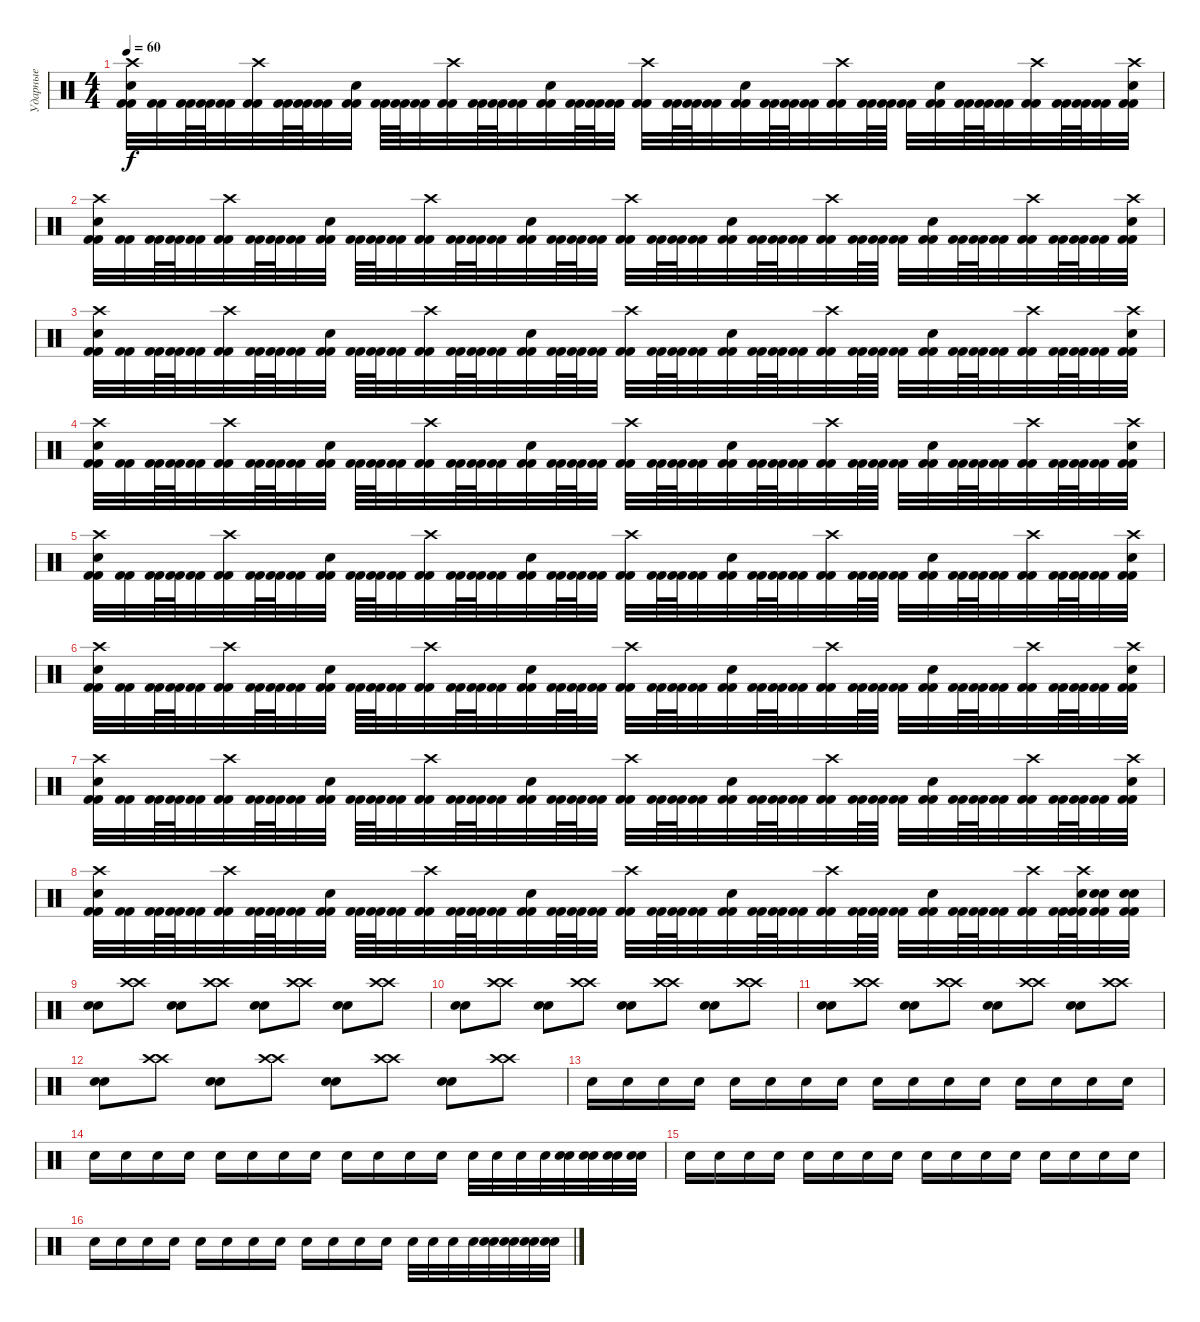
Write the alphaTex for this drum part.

\track ("Ударные" "Ударные") {instrument percussion}
\staff {score}
\articulation defaults
\ts (4 4)
\tempo 60
\clef neutral
\ks c
("Kick (hit) 2" "Kick (hit) 2" "Electric Snare (hit)" "Crash high (hit)").32{dy f} ("Kick (hit) 2" "Kick (hit) 2").32 ("Kick (hit) 2" "Kick (hit) 2").64 ("Kick (hit) 2" "Kick (hit) 2").64 ("Kick (hit) 2" "Kick (hit) 2").32 ("Kick (hit) 2" "Kick (hit) 2" "Crash high (hit)").32 ("Kick (hit) 2" "Kick (hit) 2").64 ("Kick (hit) 2" "Kick (hit) 2").64 ("Kick (hit) 2" "Kick (hit) 2").32 ("Kick (hit) 2" "Kick (hit) 2" "Electric Snare (hit)").32 ("Kick (hit) 2" "Kick (hit) 2").64 ("Kick (hit) 2" "Kick (hit) 2").64 ("Kick (hit) 2" "Kick (hit) 2").32 ("Kick (hit) 2" "Kick (hit) 2" "Crash high (hit)").32 ("Kick (hit) 2" "Kick (hit) 2").64 ("Kick (hit) 2" "Kick (hit) 2").64 ("Kick (hit) 2" "Kick (hit) 2").32 ("Kick (hit) 2" "Kick (hit) 2" "Electric Snare (hit)").32 ("Kick (hit) 2" "Kick (hit) 2").64 ("Kick (hit) 2" "Kick (hit) 2").64 ("Kick (hit) 2" "Kick (hit) 2").32 ("Kick (hit) 2" "Kick (hit) 2" "Crash high (hit)").32 ("Kick (hit) 2" "Kick (hit) 2").64 ("Kick (hit) 2" "Kick (hit) 2").64 ("Kick (hit) 2" "Kick (hit) 2").32 ("Kick (hit) 2" "Kick (hit) 2" "Electric Snare (hit)").32 ("Kick (hit) 2" "Kick (hit) 2").64 ("Kick (hit) 2" "Kick (hit) 2").64 ("Kick (hit) 2" "Kick (hit) 2").32 ("Kick (hit) 2" "Kick (hit) 2" "Crash high (hit)").32 ("Kick (hit) 2" "Kick (hit) 2").64 ("Kick (hit) 2" "Kick (hit) 2").64 ("Kick (hit) 2" "Kick (hit) 2").32 ("Kick (hit) 2" "Kick (hit) 2" "Electric Snare (hit)").32 ("Kick (hit) 2" "Kick (hit) 2").64 ("Kick (hit) 2" "Kick (hit) 2").64 ("Kick (hit) 2" "Kick (hit) 2").32 ("Kick (hit) 2" "Kick (hit) 2" "Crash high (hit)").32 ("Kick (hit) 2" "Kick (hit) 2").64 ("Kick (hit) 2" "Kick (hit) 2").64 ("Kick (hit) 2" "Kick (hit) 2").32 ("Kick (hit) 2" "Kick (hit) 2" "Electric Snare (hit)" "Crash high (hit)").32 |
("Kick (hit) 2" "Kick (hit) 2" "Electric Snare (hit)" "Crash high (hit)").32 ("Kick (hit) 2" "Kick (hit) 2").32 ("Kick (hit) 2" "Kick (hit) 2").64 ("Kick (hit) 2" "Kick (hit) 2").64 ("Kick (hit) 2" "Kick (hit) 2").32 ("Kick (hit) 2" "Kick (hit) 2" "Crash high (hit)").32 ("Kick (hit) 2" "Kick (hit) 2").64 ("Kick (hit) 2" "Kick (hit) 2").64 ("Kick (hit) 2" "Kick (hit) 2").32 ("Kick (hit) 2" "Kick (hit) 2" "Electric Snare (hit)").32 ("Kick (hit) 2" "Kick (hit) 2").64 ("Kick (hit) 2" "Kick (hit) 2").64 ("Kick (hit) 2" "Kick (hit) 2").32 ("Kick (hit) 2" "Kick (hit) 2" "Crash high (hit)").32 ("Kick (hit) 2" "Kick (hit) 2").64 ("Kick (hit) 2" "Kick (hit) 2").64 ("Kick (hit) 2" "Kick (hit) 2").32 ("Kick (hit) 2" "Kick (hit) 2" "Electric Snare (hit)").32 ("Kick (hit) 2" "Kick (hit) 2").64 ("Kick (hit) 2" "Kick (hit) 2").64 ("Kick (hit) 2" "Kick (hit) 2").32 ("Kick (hit) 2" "Kick (hit) 2" "Crash high (hit)").32 ("Kick (hit) 2" "Kick (hit) 2").64 ("Kick (hit) 2" "Kick (hit) 2").64 ("Kick (hit) 2" "Kick (hit) 2").32 ("Kick (hit) 2" "Kick (hit) 2" "Electric Snare (hit)").32 ("Kick (hit) 2" "Kick (hit) 2").64 ("Kick (hit) 2" "Kick (hit) 2").64 ("Kick (hit) 2" "Kick (hit) 2").32 ("Kick (hit) 2" "Kick (hit) 2" "Crash high (hit)").32 ("Kick (hit) 2" "Kick (hit) 2").64 ("Kick (hit) 2" "Kick (hit) 2").64 ("Kick (hit) 2" "Kick (hit) 2").32 ("Kick (hit) 2" "Kick (hit) 2" "Electric Snare (hit)").32 ("Kick (hit) 2" "Kick (hit) 2").64 ("Kick (hit) 2" "Kick (hit) 2").64 ("Kick (hit) 2" "Kick (hit) 2").32 ("Kick (hit) 2" "Kick (hit) 2" "Crash high (hit)").32 ("Kick (hit) 2" "Kick (hit) 2").64 ("Kick (hit) 2" "Kick (hit) 2").64 ("Kick (hit) 2" "Kick (hit) 2").32 ("Kick (hit) 2" "Kick (hit) 2" "Electric Snare (hit)" "Crash high (hit)").32 |
("Kick (hit) 2" "Kick (hit) 2" "Electric Snare (hit)" "Crash high (hit)").32 ("Kick (hit) 2" "Kick (hit) 2").32 ("Kick (hit) 2" "Kick (hit) 2").64 ("Kick (hit) 2" "Kick (hit) 2").64 ("Kick (hit) 2" "Kick (hit) 2").32 ("Kick (hit) 2" "Kick (hit) 2" "Crash high (hit)").32 ("Kick (hit) 2" "Kick (hit) 2").64 ("Kick (hit) 2" "Kick (hit) 2").64 ("Kick (hit) 2" "Kick (hit) 2").32 ("Kick (hit) 2" "Kick (hit) 2" "Electric Snare (hit)").32 ("Kick (hit) 2" "Kick (hit) 2").64 ("Kick (hit) 2" "Kick (hit) 2").64 ("Kick (hit) 2" "Kick (hit) 2").32 ("Kick (hit) 2" "Kick (hit) 2" "Crash high (hit)").32 ("Kick (hit) 2" "Kick (hit) 2").64 ("Kick (hit) 2" "Kick (hit) 2").64 ("Kick (hit) 2" "Kick (hit) 2").32 ("Kick (hit) 2" "Kick (hit) 2" "Electric Snare (hit)").32 ("Kick (hit) 2" "Kick (hit) 2").64 ("Kick (hit) 2" "Kick (hit) 2").64 ("Kick (hit) 2" "Kick (hit) 2").32 ("Kick (hit) 2" "Kick (hit) 2" "Crash high (hit)").32 ("Kick (hit) 2" "Kick (hit) 2").64 ("Kick (hit) 2" "Kick (hit) 2").64 ("Kick (hit) 2" "Kick (hit) 2").32 ("Kick (hit) 2" "Kick (hit) 2" "Electric Snare (hit)").32 ("Kick (hit) 2" "Kick (hit) 2").64 ("Kick (hit) 2" "Kick (hit) 2").64 ("Kick (hit) 2" "Kick (hit) 2").32 ("Kick (hit) 2" "Kick (hit) 2" "Crash high (hit)").32 ("Kick (hit) 2" "Kick (hit) 2").64 ("Kick (hit) 2" "Kick (hit) 2").64 ("Kick (hit) 2" "Kick (hit) 2").32 ("Kick (hit) 2" "Kick (hit) 2" "Electric Snare (hit)").32 ("Kick (hit) 2" "Kick (hit) 2").64 ("Kick (hit) 2" "Kick (hit) 2").64 ("Kick (hit) 2" "Kick (hit) 2").32 ("Kick (hit) 2" "Kick (hit) 2" "Crash high (hit)").32 ("Kick (hit) 2" "Kick (hit) 2").64 ("Kick (hit) 2" "Kick (hit) 2").64 ("Kick (hit) 2" "Kick (hit) 2").32 ("Kick (hit) 2" "Kick (hit) 2" "Electric Snare (hit)" "Crash high (hit)").32 |
("Kick (hit) 2" "Kick (hit) 2" "Electric Snare (hit)" "Crash high (hit)").32 ("Kick (hit) 2" "Kick (hit) 2").32 ("Kick (hit) 2" "Kick (hit) 2").64 ("Kick (hit) 2" "Kick (hit) 2").64 ("Kick (hit) 2" "Kick (hit) 2").32 ("Kick (hit) 2" "Kick (hit) 2" "Crash high (hit)").32 ("Kick (hit) 2" "Kick (hit) 2").64 ("Kick (hit) 2" "Kick (hit) 2").64 ("Kick (hit) 2" "Kick (hit) 2").32 ("Kick (hit) 2" "Kick (hit) 2" "Electric Snare (hit)").32 ("Kick (hit) 2" "Kick (hit) 2").64 ("Kick (hit) 2" "Kick (hit) 2").64 ("Kick (hit) 2" "Kick (hit) 2").32 ("Kick (hit) 2" "Kick (hit) 2" "Crash high (hit)").32 ("Kick (hit) 2" "Kick (hit) 2").64 ("Kick (hit) 2" "Kick (hit) 2").64 ("Kick (hit) 2" "Kick (hit) 2").32 ("Kick (hit) 2" "Kick (hit) 2" "Electric Snare (hit)").32 ("Kick (hit) 2" "Kick (hit) 2").64 ("Kick (hit) 2" "Kick (hit) 2").64 ("Kick (hit) 2" "Kick (hit) 2").32 ("Kick (hit) 2" "Kick (hit) 2" "Crash high (hit)").32 ("Kick (hit) 2" "Kick (hit) 2").64 ("Kick (hit) 2" "Kick (hit) 2").64 ("Kick (hit) 2" "Kick (hit) 2").32 ("Kick (hit) 2" "Kick (hit) 2" "Electric Snare (hit)").32 ("Kick (hit) 2" "Kick (hit) 2").64 ("Kick (hit) 2" "Kick (hit) 2").64 ("Kick (hit) 2" "Kick (hit) 2").32 ("Kick (hit) 2" "Kick (hit) 2" "Crash high (hit)").32 ("Kick (hit) 2" "Kick (hit) 2").64 ("Kick (hit) 2" "Kick (hit) 2").64 ("Kick (hit) 2" "Kick (hit) 2").32 ("Kick (hit) 2" "Kick (hit) 2" "Electric Snare (hit)").32 ("Kick (hit) 2" "Kick (hit) 2").64 ("Kick (hit) 2" "Kick (hit) 2").64 ("Kick (hit) 2" "Kick (hit) 2").32 ("Kick (hit) 2" "Kick (hit) 2" "Crash high (hit)").32 ("Kick (hit) 2" "Kick (hit) 2").64 ("Kick (hit) 2" "Kick (hit) 2").64 ("Kick (hit) 2" "Kick (hit) 2").32 ("Kick (hit) 2" "Kick (hit) 2" "Electric Snare (hit)" "Crash high (hit)").32 |
("Kick (hit) 2" "Kick (hit) 2" "Electric Snare (hit)" "Crash high (hit)").32 ("Kick (hit) 2" "Kick (hit) 2").32 ("Kick (hit) 2" "Kick (hit) 2").64 ("Kick (hit) 2" "Kick (hit) 2").64 ("Kick (hit) 2" "Kick (hit) 2").32 ("Kick (hit) 2" "Kick (hit) 2" "Crash high (hit)").32 ("Kick (hit) 2" "Kick (hit) 2").64 ("Kick (hit) 2" "Kick (hit) 2").64 ("Kick (hit) 2" "Kick (hit) 2").32 ("Kick (hit) 2" "Kick (hit) 2" "Electric Snare (hit)").32 ("Kick (hit) 2" "Kick (hit) 2").64 ("Kick (hit) 2" "Kick (hit) 2").64 ("Kick (hit) 2" "Kick (hit) 2").32 ("Kick (hit) 2" "Kick (hit) 2" "Crash high (hit)").32 ("Kick (hit) 2" "Kick (hit) 2").64 ("Kick (hit) 2" "Kick (hit) 2").64 ("Kick (hit) 2" "Kick (hit) 2").32 ("Kick (hit) 2" "Kick (hit) 2" "Electric Snare (hit)").32 ("Kick (hit) 2" "Kick (hit) 2").64 ("Kick (hit) 2" "Kick (hit) 2").64 ("Kick (hit) 2" "Kick (hit) 2").32 ("Kick (hit) 2" "Kick (hit) 2" "Crash high (hit)").32 ("Kick (hit) 2" "Kick (hit) 2").64 ("Kick (hit) 2" "Kick (hit) 2").64 ("Kick (hit) 2" "Kick (hit) 2").32 ("Kick (hit) 2" "Kick (hit) 2" "Electric Snare (hit)").32 ("Kick (hit) 2" "Kick (hit) 2").64 ("Kick (hit) 2" "Kick (hit) 2").64 ("Kick (hit) 2" "Kick (hit) 2").32 ("Kick (hit) 2" "Kick (hit) 2" "Crash high (hit)").32 ("Kick (hit) 2" "Kick (hit) 2").64 ("Kick (hit) 2" "Kick (hit) 2").64 ("Kick (hit) 2" "Kick (hit) 2").32 ("Kick (hit) 2" "Kick (hit) 2" "Electric Snare (hit)").32 ("Kick (hit) 2" "Kick (hit) 2").64 ("Kick (hit) 2" "Kick (hit) 2").64 ("Kick (hit) 2" "Kick (hit) 2").32 ("Kick (hit) 2" "Kick (hit) 2" "Crash high (hit)").32 ("Kick (hit) 2" "Kick (hit) 2").64 ("Kick (hit) 2" "Kick (hit) 2").64 ("Kick (hit) 2" "Kick (hit) 2").32 ("Kick (hit) 2" "Kick (hit) 2" "Electric Snare (hit)" "Crash high (hit)").32 |
("Kick (hit) 2" "Kick (hit) 2" "Electric Snare (hit)" "Crash high (hit)").32 ("Kick (hit) 2" "Kick (hit) 2").32 ("Kick (hit) 2" "Kick (hit) 2").64 ("Kick (hit) 2" "Kick (hit) 2").64 ("Kick (hit) 2" "Kick (hit) 2").32 ("Kick (hit) 2" "Kick (hit) 2" "Crash high (hit)").32 ("Kick (hit) 2" "Kick (hit) 2").64 ("Kick (hit) 2" "Kick (hit) 2").64 ("Kick (hit) 2" "Kick (hit) 2").32 ("Kick (hit) 2" "Kick (hit) 2" "Electric Snare (hit)").32 ("Kick (hit) 2" "Kick (hit) 2").64 ("Kick (hit) 2" "Kick (hit) 2").64 ("Kick (hit) 2" "Kick (hit) 2").32 ("Kick (hit) 2" "Kick (hit) 2" "Crash high (hit)").32 ("Kick (hit) 2" "Kick (hit) 2").64 ("Kick (hit) 2" "Kick (hit) 2").64 ("Kick (hit) 2" "Kick (hit) 2").32 ("Kick (hit) 2" "Kick (hit) 2" "Electric Snare (hit)").32 ("Kick (hit) 2" "Kick (hit) 2").64 ("Kick (hit) 2" "Kick (hit) 2").64 ("Kick (hit) 2" "Kick (hit) 2").32 ("Kick (hit) 2" "Kick (hit) 2" "Crash high (hit)").32 ("Kick (hit) 2" "Kick (hit) 2").64 ("Kick (hit) 2" "Kick (hit) 2").64 ("Kick (hit) 2" "Kick (hit) 2").32 ("Kick (hit) 2" "Kick (hit) 2" "Electric Snare (hit)").32 ("Kick (hit) 2" "Kick (hit) 2").64 ("Kick (hit) 2" "Kick (hit) 2").64 ("Kick (hit) 2" "Kick (hit) 2").32 ("Kick (hit) 2" "Kick (hit) 2" "Crash high (hit)").32 ("Kick (hit) 2" "Kick (hit) 2").64 ("Kick (hit) 2" "Kick (hit) 2").64 ("Kick (hit) 2" "Kick (hit) 2").32 ("Kick (hit) 2" "Kick (hit) 2" "Electric Snare (hit)").32 ("Kick (hit) 2" "Kick (hit) 2").64 ("Kick (hit) 2" "Kick (hit) 2").64 ("Kick (hit) 2" "Kick (hit) 2").32 ("Kick (hit) 2" "Kick (hit) 2" "Crash high (hit)").32 ("Kick (hit) 2" "Kick (hit) 2").64 ("Kick (hit) 2" "Kick (hit) 2").64 ("Kick (hit) 2" "Kick (hit) 2").32 ("Kick (hit) 2" "Kick (hit) 2" "Electric Snare (hit)" "Crash high (hit)").32 |
("Kick (hit) 2" "Kick (hit) 2" "Electric Snare (hit)" "Crash high (hit)").32 ("Kick (hit) 2" "Kick (hit) 2").32 ("Kick (hit) 2" "Kick (hit) 2").64 ("Kick (hit) 2" "Kick (hit) 2").64 ("Kick (hit) 2" "Kick (hit) 2").32 ("Kick (hit) 2" "Kick (hit) 2" "Crash high (hit)").32 ("Kick (hit) 2" "Kick (hit) 2").64 ("Kick (hit) 2" "Kick (hit) 2").64 ("Kick (hit) 2" "Kick (hit) 2").32 ("Kick (hit) 2" "Kick (hit) 2" "Electric Snare (hit)").32 ("Kick (hit) 2" "Kick (hit) 2").64 ("Kick (hit) 2" "Kick (hit) 2").64 ("Kick (hit) 2" "Kick (hit) 2").32 ("Kick (hit) 2" "Kick (hit) 2" "Crash high (hit)").32 ("Kick (hit) 2" "Kick (hit) 2").64 ("Kick (hit) 2" "Kick (hit) 2").64 ("Kick (hit) 2" "Kick (hit) 2").32 ("Kick (hit) 2" "Kick (hit) 2" "Electric Snare (hit)").32 ("Kick (hit) 2" "Kick (hit) 2").64 ("Kick (hit) 2" "Kick (hit) 2").64 ("Kick (hit) 2" "Kick (hit) 2").32 ("Kick (hit) 2" "Kick (hit) 2" "Crash high (hit)").32 ("Kick (hit) 2" "Kick (hit) 2").64 ("Kick (hit) 2" "Kick (hit) 2").64 ("Kick (hit) 2" "Kick (hit) 2").32 ("Kick (hit) 2" "Kick (hit) 2" "Electric Snare (hit)").32 ("Kick (hit) 2" "Kick (hit) 2").64 ("Kick (hit) 2" "Kick (hit) 2").64 ("Kick (hit) 2" "Kick (hit) 2").32 ("Kick (hit) 2" "Kick (hit) 2" "Crash high (hit)").32 ("Kick (hit) 2" "Kick (hit) 2").64 ("Kick (hit) 2" "Kick (hit) 2").64 ("Kick (hit) 2" "Kick (hit) 2").32 ("Kick (hit) 2" "Kick (hit) 2" "Electric Snare (hit)").32 ("Kick (hit) 2" "Kick (hit) 2").64 ("Kick (hit) 2" "Kick (hit) 2").64 ("Kick (hit) 2" "Kick (hit) 2").32 ("Kick (hit) 2" "Kick (hit) 2" "Crash high (hit)").32 ("Kick (hit) 2" "Kick (hit) 2").64 ("Kick (hit) 2" "Kick (hit) 2").64 ("Kick (hit) 2" "Kick (hit) 2").32 ("Kick (hit) 2" "Kick (hit) 2" "Electric Snare (hit)" "Crash high (hit)").32 |
("Kick (hit) 2" "Kick (hit) 2" "Electric Snare (hit)" "Crash high (hit)").32 ("Kick (hit) 2" "Kick (hit) 2").32 ("Kick (hit) 2" "Kick (hit) 2").64 ("Kick (hit) 2" "Kick (hit) 2").64 ("Kick (hit) 2" "Kick (hit) 2").32 ("Kick (hit) 2" "Kick (hit) 2" "Crash high (hit)").32 ("Kick (hit) 2" "Kick (hit) 2").64 ("Kick (hit) 2" "Kick (hit) 2").64 ("Kick (hit) 2" "Kick (hit) 2").32 ("Kick (hit) 2" "Kick (hit) 2" "Electric Snare (hit)").32 ("Kick (hit) 2" "Kick (hit) 2").64 ("Kick (hit) 2" "Kick (hit) 2").64 ("Kick (hit) 2" "Kick (hit) 2").32 ("Kick (hit) 2" "Kick (hit) 2" "Crash high (hit)").32 ("Kick (hit) 2" "Kick (hit) 2").64 ("Kick (hit) 2" "Kick (hit) 2").64 ("Kick (hit) 2" "Kick (hit) 2").32 ("Kick (hit) 2" "Kick (hit) 2" "Electric Snare (hit)").32 ("Kick (hit) 2" "Kick (hit) 2").64 ("Kick (hit) 2" "Kick (hit) 2").64 ("Kick (hit) 2" "Kick (hit) 2").32 ("Kick (hit) 2" "Kick (hit) 2" "Crash high (hit)").32 ("Kick (hit) 2" "Kick (hit) 2").64 ("Kick (hit) 2" "Kick (hit) 2").64 ("Kick (hit) 2" "Kick (hit) 2").32 ("Kick (hit) 2" "Kick (hit) 2" "Electric Snare (hit)").32 ("Kick (hit) 2" "Kick (hit) 2").64 ("Kick (hit) 2" "Kick (hit) 2").64 ("Kick (hit) 2" "Kick (hit) 2").32 ("Kick (hit) 2" "Kick (hit) 2" "Crash high (hit)").32 ("Kick (hit) 2" "Kick (hit) 2").64 ("Kick (hit) 2" "Kick (hit) 2").64 ("Kick (hit) 2" "Kick (hit) 2").32 ("Kick (hit) 2" "Kick (hit) 2" "Electric Snare (hit)").32 ("Kick (hit) 2" "Kick (hit) 2").64 ("Kick (hit) 2" "Kick (hit) 2").64 ("Kick (hit) 2" "Kick (hit) 2").32 ("Kick (hit) 2" "Kick (hit) 2" "Crash high (hit)").32 ("Kick (hit) 2" "Kick (hit) 2").64 ("Kick (hit) 2" "Kick (hit) 2" "Electric Snare (hit)" "Crash high (hit)").64 ("Kick (hit) 2" "Kick (hit) 2" "Electric Snare (hit)" "Electric Snare (hit)").32 ("Kick (hit) 2" "Kick (hit) 2" "Electric Snare (hit)" "Electric Snare (hit)").32 |
("Electric Snare (hit)" "Electric Snare (hit)").8 ("Crash high (hit)" "Crash high (hit)").8 ("Electric Snare (hit)" "Electric Snare (hit)").8 ("Crash high (hit)" "Crash high (hit)").8 ("Electric Snare (hit)" "Electric Snare (hit)").8 ("Crash high (hit)" "Crash high (hit)").8 ("Electric Snare (hit)" "Electric Snare (hit)").8 ("Crash high (hit)" "Crash high (hit)").8 |
("Electric Snare (hit)" "Electric Snare (hit)").8 ("Crash high (hit)" "Crash high (hit)").8 ("Electric Snare (hit)" "Electric Snare (hit)").8 ("Crash high (hit)" "Crash high (hit)").8 ("Electric Snare (hit)" "Electric Snare (hit)").8 ("Crash high (hit)" "Crash high (hit)").8 ("Electric Snare (hit)" "Electric Snare (hit)").8 ("Crash high (hit)" "Crash high (hit)").8 |
("Electric Snare (hit)" "Electric Snare (hit)").8 ("Crash high (hit)" "Crash high (hit)").8 ("Electric Snare (hit)" "Electric Snare (hit)").8 ("Crash high (hit)" "Crash high (hit)").8 ("Electric Snare (hit)" "Electric Snare (hit)").8 ("Crash high (hit)" "Crash high (hit)").8 ("Electric Snare (hit)" "Electric Snare (hit)").8 ("Crash high (hit)" "Crash high (hit)").8 |
("Electric Snare (hit)" "Electric Snare (hit)").8 ("Crash high (hit)" "Crash high (hit)").8 ("Electric Snare (hit)" "Electric Snare (hit)").8 ("Crash high (hit)" "Crash high (hit)").8 ("Electric Snare (hit)" "Electric Snare (hit)").8 ("Crash high (hit)" "Crash high (hit)").8 ("Electric Snare (hit)" "Electric Snare (hit)").8 ("Crash high (hit)" "Crash high (hit)").8 |
"Electric Snare (hit)".16 "Electric Snare (hit)".16 "Electric Snare (hit)".16 "Electric Snare (hit)".16 "Electric Snare (hit)".16 "Electric Snare (hit)".16 "Electric Snare (hit)".16 "Electric Snare (hit)".16 "Electric Snare (hit)".16 "Electric Snare (hit)".16 "Electric Snare (hit)".16 "Electric Snare (hit)".16 "Electric Snare (hit)".16 "Electric Snare (hit)".16 "Electric Snare (hit)".16 "Electric Snare (hit)".16 |
"Electric Snare (hit)".16 "Electric Snare (hit)".16 "Electric Snare (hit)".16 "Electric Snare (hit)".16 "Electric Snare (hit)".16 "Electric Snare (hit)".16 "Electric Snare (hit)".16 "Electric Snare (hit)".16 "Electric Snare (hit)".16 "Electric Snare (hit)".16 "Electric Snare (hit)".16 "Electric Snare (hit)".16 "Electric Snare (hit)".32 "Electric Snare (hit)".32 "Electric Snare (hit)".32 "Electric Snare (hit)".32 ("Electric Snare (hit)" "Electric Snare (hit)").32 ("Electric Snare (hit)" "Electric Snare (hit)").32 ("Electric Snare (hit)" "Electric Snare (hit)").32 ("Electric Snare (hit)" "Electric Snare (hit)").32 |
"Electric Snare (hit)".16 "Electric Snare (hit)".16 "Electric Snare (hit)".16 "Electric Snare (hit)".16 "Electric Snare (hit)".16 "Electric Snare (hit)".16 "Electric Snare (hit)".16 "Electric Snare (hit)".16 "Electric Snare (hit)".16 "Electric Snare (hit)".16 "Electric Snare (hit)".16 "Electric Snare (hit)".16 "Electric Snare (hit)".16 "Electric Snare (hit)".16 "Electric Snare (hit)".16 "Electric Snare (hit)".16 |
"Electric Snare (hit)".16 "Electric Snare (hit)".16 "Electric Snare (hit)".16 "Electric Snare (hit)".16 "Electric Snare (hit)".16 "Electric Snare (hit)".16 "Electric Snare (hit)".16 "Electric Snare (hit)".16 "Electric Snare (hit)".16 "Electric Snare (hit)".16 "Electric Snare (hit)".16 "Electric Snare (hit)".16 "Electric Snare (hit)".32 "Electric Snare (hit)".32 "Electric Snare (hit)".32 "Electric Snare (hit)".32 ("Electric Snare (hit)" "Electric Snare (hit)").32 ("Electric Snare (hit)" "Electric Snare (hit)").32 ("Electric Snare (hit)" "Electric Snare (hit)").32 ("Electric Snare (hit)" "Electric Snare (hit)").32
